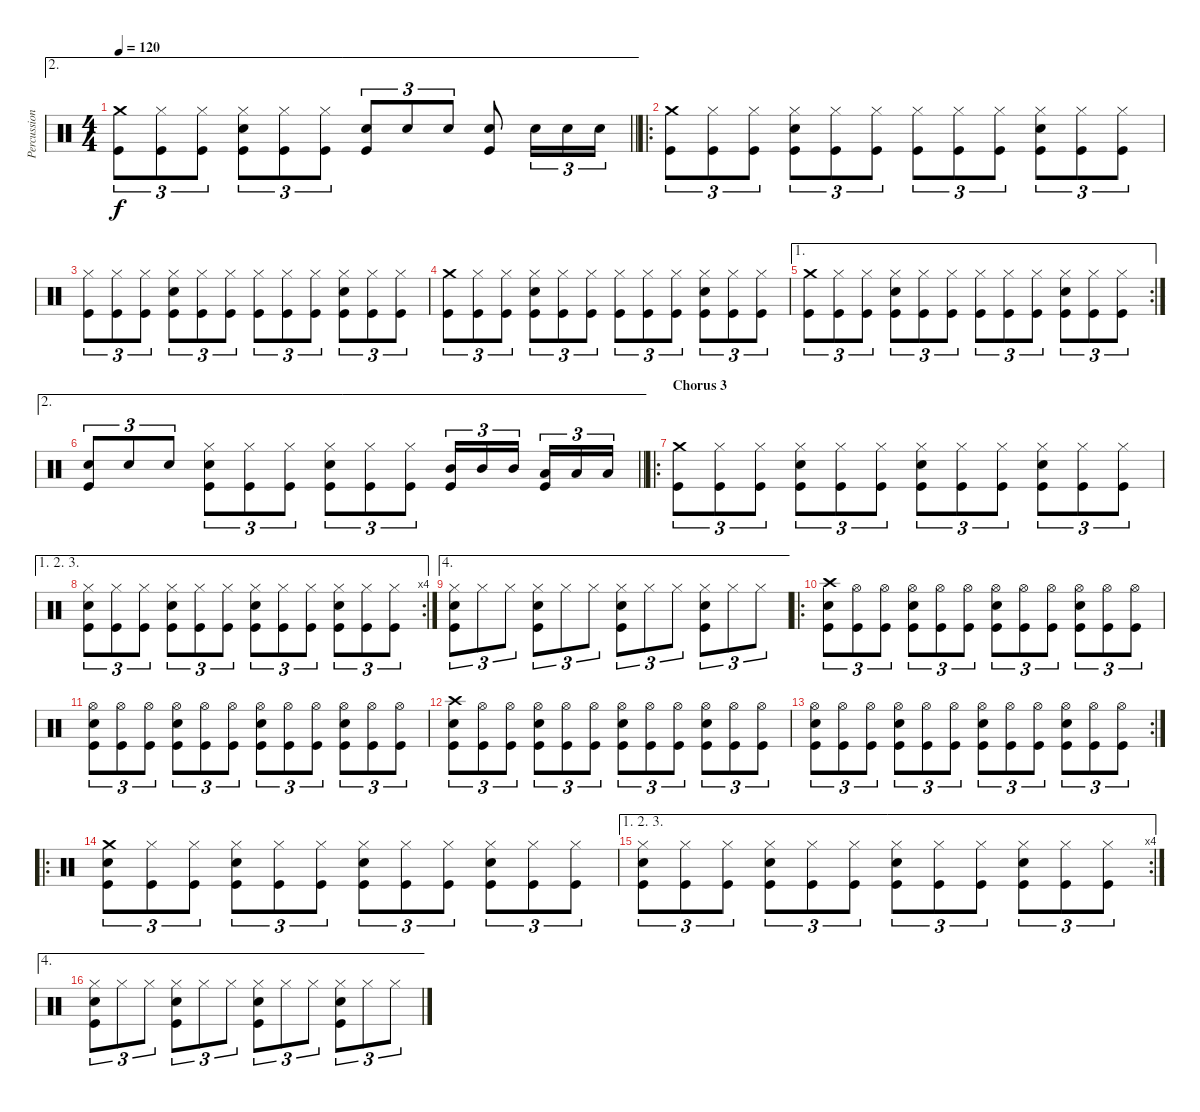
\track ("Percussion" "Percussion") {instrument percussion}
\staff {score}
\articulation defaults
\ae 2
\ts (4 4)
\tempo 120
\clef neutral
\barLineRight lightlight
\ks c
("Crash medium (hit)" "Kick (hit)").8{tu (3 2) dy f} ("Hi-Hat (closed)" "Kick (hit)").8{tu (3 2)} ("Hi-Hat (closed)" "Kick (hit)").8{tu (3 2)} ("Hi-Hat (closed)" "Snare (hit) 2" "Kick (hit)").8{tu (3 2)} ("Hi-Hat (closed)" "Kick (hit)").8{tu (3 2)} ("Hi-Hat (closed)" "Kick (hit)").8{tu (3 2)} ("Snare (hit) 2" "Kick (hit)").8{tu (3 2)} "Snare (hit) 2".8{tu (3 2)} "Snare (hit) 2".8{tu (3 2)} ("Snare (hit) 2" "Kick (hit)").8 "Snare (hit) 2".16{tu (3 2)} "Snare (hit) 2".16{tu (3 2)} "Snare (hit) 2".16{tu (3 2)} |
\ro
("Crash medium (hit)" "Kick (hit)").8{tu (3 2)} ("Hi-Hat (closed)" "Kick (hit)").8{tu (3 2)} ("Hi-Hat (closed)" "Kick (hit)").8{tu (3 2)} ("Hi-Hat (closed)" "Snare (hit) 2" "Kick (hit)").8{tu (3 2)} ("Hi-Hat (closed)" "Kick (hit)").8{tu (3 2)} ("Hi-Hat (closed)" "Kick (hit)").8{tu (3 2)} ("Hi-Hat (closed)" "Kick (hit)").8{tu (3 2)} ("Hi-Hat (closed)" "Kick (hit)").8{tu (3 2)} ("Hi-Hat (closed)" "Kick (hit)").8{tu (3 2)} ("Hi-Hat (closed)" "Snare (hit) 2" "Kick (hit)").8{tu (3 2)} ("Hi-Hat (closed)" "Kick (hit)").8{tu (3 2)} ("Hi-Hat (closed)" "Kick (hit)").8{tu (3 2)} |
("Hi-Hat (closed)" "Kick (hit)").8{tu (3 2)} ("Hi-Hat (closed)" "Kick (hit)").8{tu (3 2)} ("Hi-Hat (closed)" "Kick (hit)").8{tu (3 2)} ("Hi-Hat (closed)" "Snare (hit) 2" "Kick (hit)").8{tu (3 2)} ("Hi-Hat (closed)" "Kick (hit)").8{tu (3 2)} ("Hi-Hat (closed)" "Kick (hit)").8{tu (3 2)} ("Hi-Hat (closed)" "Kick (hit)").8{tu (3 2)} ("Hi-Hat (closed)" "Kick (hit)").8{tu (3 2)} ("Hi-Hat (closed)" "Kick (hit)").8{tu (3 2)} ("Hi-Hat (closed)" "Snare (hit) 2" "Kick (hit)").8{tu (3 2)} ("Hi-Hat (closed)" "Kick (hit)").8{tu (3 2)} ("Hi-Hat (closed)" "Kick (hit)").8{tu (3 2)} |
("Crash medium (hit)" "Kick (hit)").8{tu (3 2)} ("Hi-Hat (closed)" "Kick (hit)").8{tu (3 2)} ("Hi-Hat (closed)" "Kick (hit)").8{tu (3 2)} ("Hi-Hat (closed)" "Snare (hit) 2" "Kick (hit)").8{tu (3 2)} ("Hi-Hat (closed)" "Kick (hit)").8{tu (3 2)} ("Hi-Hat (closed)" "Kick (hit)").8{tu (3 2)} ("Hi-Hat (closed)" "Kick (hit)").8{tu (3 2)} ("Hi-Hat (closed)" "Kick (hit)").8{tu (3 2)} ("Hi-Hat (closed)" "Kick (hit)").8{tu (3 2)} ("Hi-Hat (closed)" "Snare (hit) 2" "Kick (hit)").8{tu (3 2)} ("Hi-Hat (closed)" "Kick (hit)").8{tu (3 2)} ("Hi-Hat (closed)" "Kick (hit)").8{tu (3 2)} |
\ae 1
\rc 2
("Crash medium (hit)" "Kick (hit)").8{tu (3 2)} ("Hi-Hat (closed)" "Kick (hit)").8{tu (3 2)} ("Hi-Hat (closed)" "Kick (hit)").8{tu (3 2)} ("Hi-Hat (closed)" "Snare (hit) 2" "Kick (hit)").8{tu (3 2)} ("Hi-Hat (closed)" "Kick (hit)").8{tu (3 2)} ("Hi-Hat (closed)" "Kick (hit)").8{tu (3 2)} ("Hi-Hat (closed)" "Kick (hit)").8{tu (3 2)} ("Hi-Hat (closed)" "Kick (hit)").8{tu (3 2)} ("Hi-Hat (closed)" "Kick (hit)").8{tu (3 2)} ("Hi-Hat (closed)" "Snare (hit) 2" "Kick (hit)").8{tu (3 2)} ("Hi-Hat (closed)" "Kick (hit)").8{tu (3 2)} ("Hi-Hat (closed)" "Kick (hit)").8{tu (3 2)} |
\ae 2
\barLineRight lightlight
("Snare (hit) 2" "Kick (hit)").8{tu (3 2)} "Snare (hit) 2".8{tu (3 2)} "Snare (hit) 2".8{tu (3 2)} ("Hi-Hat (closed)" "Snare (hit) 2" "Kick (hit)").8{tu (3 2)} ("Hi-Hat (closed)" "Kick (hit)").8{tu (3 2)} ("Hi-Hat (closed)" "Kick (hit)").8{tu (3 2)} ("Hi-Hat (closed)" "Snare (hit) 2" "Kick (hit)").8{tu (3 2)} ("Hi-Hat (closed)" "Kick (hit)").8{tu (3 2)} ("Hi-Hat (closed)" "Kick (hit)").8{tu (3 2)} ("Mid Tom (hit)" "Kick (hit)").16{tu (3 2)} "Mid Tom (hit)".16{tu (3 2)} "Mid Tom (hit)".16{tu (3 2) beam splitsecondary} ("Low Tom (hit)" "Kick (hit)").16{tu (3 2)} "Low Tom (hit)".16{tu (3 2)} "Low Tom (hit)".16{tu (3 2)} |
\ro
\section ("" "Chorus 3")
("Crash medium (hit)" "Kick (hit)").8{tu (3 2)} ("Hi-Hat (closed)" "Kick (hit)").8{tu (3 2)} ("Hi-Hat (closed)" "Kick (hit)").8{tu (3 2)} ("Hi-Hat (closed)" "Snare (hit) 2" "Kick (hit)").8{tu (3 2)} ("Hi-Hat (closed)" "Kick (hit)").8{tu (3 2)} ("Hi-Hat (closed)" "Kick (hit)").8{tu (3 2)} ("Hi-Hat (closed)" "Snare (hit) 2" "Kick (hit)").8{tu (3 2)} ("Hi-Hat (closed)" "Kick (hit)").8{tu (3 2)} ("Hi-Hat (closed)" "Kick (hit)").8{tu (3 2)} ("Hi-Hat (closed)" "Snare (hit) 2" "Kick (hit)").8{tu (3 2)} ("Hi-Hat (closed)" "Kick (hit)").8{tu (3 2)} ("Hi-Hat (closed)" "Kick (hit)").8{tu (3 2)} |
\ae (1 2 3)
\rc 4
("Hi-Hat (closed)" "Snare (hit) 2" "Kick (hit)").8{tu (3 2)} ("Hi-Hat (closed)" "Kick (hit)").8{tu (3 2)} ("Hi-Hat (closed)" "Kick (hit)").8{tu (3 2)} ("Hi-Hat (closed)" "Snare (hit) 2" "Kick (hit)").8{tu (3 2)} ("Hi-Hat (closed)" "Kick (hit)").8{tu (3 2)} ("Hi-Hat (closed)" "Kick (hit)").8{tu (3 2)} ("Hi-Hat (closed)" "Snare (hit) 2" "Kick (hit)").8{tu (3 2)} ("Hi-Hat (closed)" "Kick (hit)").8{tu (3 2)} ("Hi-Hat (closed)" "Kick (hit)").8{tu (3 2)} ("Hi-Hat (closed)" "Snare (hit) 2" "Kick (hit)").8{tu (3 2)} ("Hi-Hat (closed)" "Kick (hit)").8{tu (3 2)} ("Hi-Hat (closed)" "Kick (hit)").8{tu (3 2)} |
\ae 4
("Hi-Hat (closed)" "Snare (hit) 2" "Kick (hit)").8{tu (3 2)} "Hi-Hat (closed)".8{tu (3 2)} "Hi-Hat (closed)".8{tu (3 2)} ("Hi-Hat (closed)" "Snare (hit) 2" "Kick (hit)").8{tu (3 2)} "Hi-Hat (closed)".8{tu (3 2)} "Hi-Hat (closed)".8{tu (3 2)} ("Hi-Hat (closed)" "Snare (hit) 2" "Kick (hit)").8{tu (3 2)} "Hi-Hat (closed)".8{tu (3 2)} "Hi-Hat (closed)".8{tu (3 2)} ("Hi-Hat (closed)" "Snare (hit) 2" "Kick (hit)").8{tu (3 2)} "Hi-Hat (closed)".8{tu (3 2)} "Hi-Hat (closed)".8{tu (3 2)} |
\ro
("Crash high (hit)" "Snare (hit) 2" "Kick (hit)").8{tu (3 2)} ("Hi-Hat (open)" "Kick (hit)").8{tu (3 2)} ("Hi-Hat (open)" "Kick (hit)").8{tu (3 2)} ("Hi-Hat (open)" "Snare (hit) 2" "Kick (hit)").8{tu (3 2)} ("Hi-Hat (open)" "Kick (hit)").8{tu (3 2)} ("Hi-Hat (open)" "Kick (hit)").8{tu (3 2)} ("Hi-Hat (open)" "Snare (hit) 2" "Kick (hit)").8{tu (3 2)} ("Hi-Hat (open)" "Kick (hit)").8{tu (3 2)} ("Hi-Hat (open)" "Kick (hit)").8{tu (3 2)} ("Hi-Hat (open)" "Snare (hit) 2" "Kick (hit)").8{tu (3 2)} ("Hi-Hat (open)" "Kick (hit)").8{tu (3 2)} ("Hi-Hat (open)" "Kick (hit)").8{tu (3 2)} |
("Hi-Hat (open)" "Snare (hit) 2" "Kick (hit)").8{tu (3 2)} ("Hi-Hat (open)" "Kick (hit)").8{tu (3 2)} ("Hi-Hat (open)" "Kick (hit)").8{tu (3 2)} ("Hi-Hat (open)" "Snare (hit) 2" "Kick (hit)").8{tu (3 2)} ("Hi-Hat (open)" "Kick (hit)").8{tu (3 2)} ("Hi-Hat (open)" "Kick (hit)").8{tu (3 2)} ("Hi-Hat (open)" "Snare (hit) 2" "Kick (hit)").8{tu (3 2)} ("Hi-Hat (open)" "Kick (hit)").8{tu (3 2)} ("Hi-Hat (open)" "Kick (hit)").8{tu (3 2)} ("Hi-Hat (open)" "Snare (hit) 2" "Kick (hit)").8{tu (3 2)} ("Hi-Hat (open)" "Kick (hit)").8{tu (3 2)} ("Hi-Hat (open)" "Kick (hit)").8{tu (3 2)} |
("Crash high (hit)" "Snare (hit) 2" "Kick (hit)").8{tu (3 2)} ("Hi-Hat (open)" "Kick (hit)").8{tu (3 2)} ("Hi-Hat (open)" "Kick (hit)").8{tu (3 2)} ("Hi-Hat (open)" "Snare (hit) 2" "Kick (hit)").8{tu (3 2)} ("Hi-Hat (open)" "Kick (hit)").8{tu (3 2)} ("Hi-Hat (open)" "Kick (hit)").8{tu (3 2)} ("Hi-Hat (open)" "Snare (hit) 2" "Kick (hit)").8{tu (3 2)} ("Hi-Hat (open)" "Kick (hit)").8{tu (3 2)} ("Hi-Hat (open)" "Kick (hit)").8{tu (3 2)} ("Hi-Hat (open)" "Snare (hit) 2" "Kick (hit)").8{tu (3 2)} ("Hi-Hat (open)" "Kick (hit)").8{tu (3 2)} ("Hi-Hat (open)" "Kick (hit)").8{tu (3 2)} |
\rc 2
("Hi-Hat (open)" "Snare (hit) 2" "Kick (hit)").8{tu (3 2)} ("Hi-Hat (open)" "Kick (hit)").8{tu (3 2)} ("Hi-Hat (open)" "Kick (hit)").8{tu (3 2)} ("Hi-Hat (open)" "Snare (hit) 2" "Kick (hit)").8{tu (3 2)} ("Hi-Hat (open)" "Kick (hit)").8{tu (3 2)} ("Hi-Hat (open)" "Kick (hit)").8{tu (3 2)} ("Hi-Hat (open)" "Snare (hit) 2" "Kick (hit)").8{tu (3 2)} ("Hi-Hat (open)" "Kick (hit)").8{tu (3 2)} ("Hi-Hat (open)" "Kick (hit)").8{tu (3 2)} ("Hi-Hat (open)" "Snare (hit) 2" "Kick (hit)").8{tu (3 2)} ("Hi-Hat (open)" "Kick (hit)").8{tu (3 2)} ("Hi-Hat (open)" "Kick (hit)").8{tu (3 2)} |
\ro
("Crash medium (hit)" "Snare (hit) 2" "Kick (hit)").8{tu (3 2)} ("Hi-Hat (closed)" "Kick (hit)").8{tu (3 2)} ("Hi-Hat (closed)" "Kick (hit)").8{tu (3 2)} ("Hi-Hat (closed)" "Snare (hit) 2" "Kick (hit)").8{tu (3 2)} ("Hi-Hat (closed)" "Kick (hit)").8{tu (3 2)} ("Hi-Hat (closed)" "Kick (hit)").8{tu (3 2)} ("Hi-Hat (closed)" "Snare (hit) 2" "Kick (hit)").8{tu (3 2)} ("Hi-Hat (closed)" "Kick (hit)").8{tu (3 2)} ("Hi-Hat (closed)" "Kick (hit)").8{tu (3 2)} ("Hi-Hat (closed)" "Snare (hit) 2" "Kick (hit)").8{tu (3 2)} ("Hi-Hat (closed)" "Kick (hit)").8{tu (3 2)} ("Hi-Hat (closed)" "Kick (hit)").8{tu (3 2)} |
\ae (1 2 3)
\rc 4
("Hi-Hat (closed)" "Snare (hit) 2" "Kick (hit)").8{tu (3 2)} ("Hi-Hat (closed)" "Kick (hit)").8{tu (3 2)} ("Hi-Hat (closed)" "Kick (hit)").8{tu (3 2)} ("Hi-Hat (closed)" "Snare (hit) 2" "Kick (hit)").8{tu (3 2)} ("Hi-Hat (closed)" "Kick (hit)").8{tu (3 2)} ("Hi-Hat (closed)" "Kick (hit)").8{tu (3 2)} ("Hi-Hat (closed)" "Snare (hit) 2" "Kick (hit)").8{tu (3 2)} ("Hi-Hat (closed)" "Kick (hit)").8{tu (3 2)} ("Hi-Hat (closed)" "Kick (hit)").8{tu (3 2)} ("Hi-Hat (closed)" "Snare (hit) 2" "Kick (hit)").8{tu (3 2)} ("Hi-Hat (closed)" "Kick (hit)").8{tu (3 2)} ("Hi-Hat (closed)" "Kick (hit)").8{tu (3 2)} |
\ae 4
("Hi-Hat (closed)" "Snare (hit) 2" "Kick (hit)").8{tu (3 2)} "Hi-Hat (closed)".8{tu (3 2)} "Hi-Hat (closed)".8{tu (3 2)} ("Hi-Hat (closed)" "Snare (hit) 2" "Kick (hit)").8{tu (3 2)} "Hi-Hat (closed)".8{tu (3 2)} "Hi-Hat (closed)".8{tu (3 2)} ("Hi-Hat (closed)" "Snare (hit) 2" "Kick (hit)").8{tu (3 2)} "Hi-Hat (closed)".8{tu (3 2)} "Hi-Hat (closed)".8{tu (3 2)} ("Hi-Hat (closed)" "Snare (hit) 2" "Kick (hit)").8{tu (3 2)} "Hi-Hat (closed)".8{tu (3 2)} "Hi-Hat (closed)".8{tu (3 2)}
